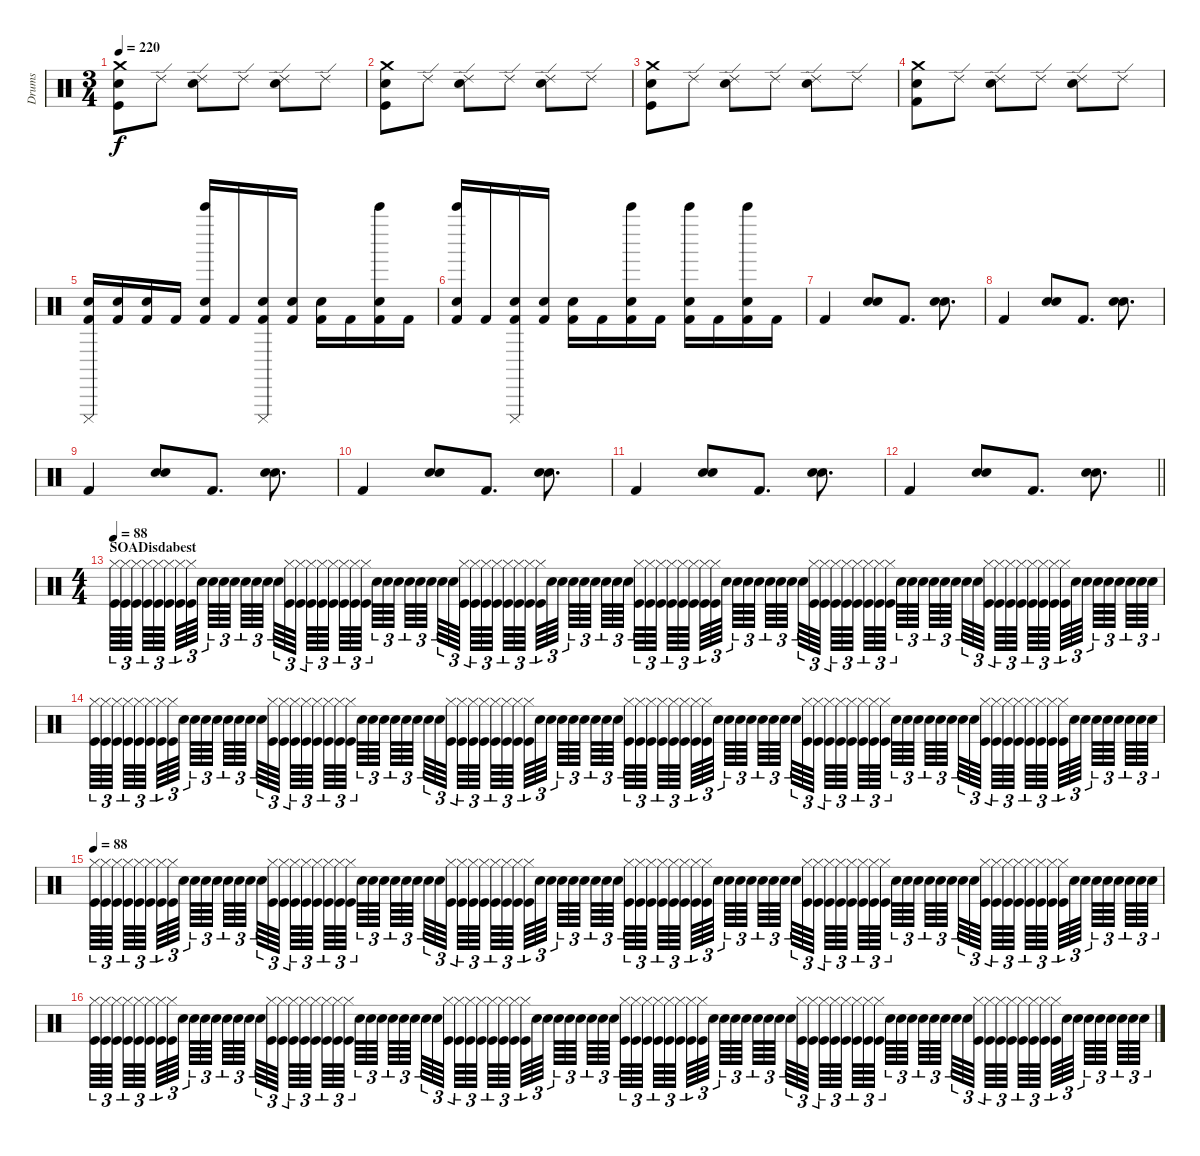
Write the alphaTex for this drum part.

\track ("Drums" "Drums") {instrument percussion}
\staff {score}
\articulation defaults
\ts (3 4)
\tempo 220
\clef neutral
\ks c
("Crash medium (hit)" "Electric Snare (hit)" "Kick (hit)").8{dy f} "Ride (edge) 2".8 ("Ride (edge) 2" "Electric Snare (hit)").8 "Ride (edge) 2".8 ("Ride (edge) 2" "Electric Snare (hit)").8 "Ride (edge) 2".8 |
("Crash medium (hit)" "Electric Snare (hit)" "Kick (hit)").8 "Ride (edge) 2".8 ("Ride (edge) 2" "Electric Snare (hit)").8 "Ride (edge) 2".8 ("Ride (edge) 2" "Electric Snare (hit)").8 "Ride (edge) 2".8 |
("Crash medium (hit)" "Electric Snare (hit)" "Kick (hit)").8 "Ride (edge) 2".8 ("Ride (edge) 2" "Electric Snare (hit)").8 "Ride (edge) 2".8 ("Ride (edge) 2" "Electric Snare (hit)").8 "Ride (edge) 2".8 |
("Crash medium (hit)" "Electric Snare (hit)" "Kick (hit) 2").8 "Ride (edge) 2".8 ("Ride (edge) 2" "Electric Snare (hit)").8 "Ride (edge) 2".8 ("Ride (edge) 2" "Electric Snare (hit)").8 "Ride (edge) 2".8 |
("Cuica (mute)" "Electric Snare (hit)" "Kick (hit) 2").16 ("Electric Snare (hit)" "Kick (hit) 2").16 ("Electric Snare (hit)" "Kick (hit) 2").16 "Kick (hit) 2".16 ("Bell Tree (hit)" "Electric Snare (hit)" "Kick (hit) 2").16 "Kick (hit) 2".16 ("Cuica (mute)" "Electric Snare (hit)" "Kick (hit) 2").16 ("Electric Snare (hit)" "Kick (hit) 2").16 ("Electric Snare (hit)" "Kick (hit) 2").16 "Kick (hit) 2".16 ("Bell Tree (hit)" "Electric Snare (hit)" "Kick (hit) 2").16 "Kick (hit) 2".16 |
("Bell Tree (hit)" "Electric Snare (hit)" "Kick (hit) 2").16 "Kick (hit) 2".16 ("Cuica (mute)" "Electric Snare (hit)" "Kick (hit) 2").16 ("Electric Snare (hit)" "Kick (hit) 2").16 ("Electric Snare (hit)" "Kick (hit) 2").16 "Kick (hit) 2".16 ("Bell Tree (hit)" "Electric Snare (hit)" "Kick (hit) 2").16 "Kick (hit) 2".16 ("Bell Tree (hit)" "Electric Snare (hit)" "Kick (hit) 2").16 "Kick (hit) 2".16 ("Bell Tree (hit)" "Electric Snare (hit)" "Kick (hit) 2").16 "Kick (hit) 2".16 |
"Kick (hit) 2".4 ("Hand Clap (hit)" "Electric Snare (hit)").8 "Kick (hit) 2".8{d} ("Hand Clap (hit)" "Electric Snare (hit)").8{d} |
"Kick (hit) 2".4 ("Hand Clap (hit)" "Electric Snare (hit)").8 "Kick (hit) 2".8{d} ("Hand Clap (hit)" "Electric Snare (hit)").8{d} |
"Kick (hit) 2".4 ("Hand Clap (hit)" "Electric Snare (hit)").8 "Kick (hit) 2".8{d} ("Hand Clap (hit)" "Electric Snare (hit)").8{d} |
"Kick (hit) 2".4 ("Hand Clap (hit)" "Electric Snare (hit)").8 "Kick (hit) 2".8{d} ("Hand Clap (hit)" "Electric Snare (hit)").8{d} |
"Kick (hit) 2".4 ("Hand Clap (hit)" "Electric Snare (hit)").8 "Kick (hit) 2".8{d} ("Hand Clap (hit)" "Electric Snare (hit)").8{d} |
\barLineRight lightlight "Kick (hit) 2".4
("Hand Clap (hit)" "Electric Snare (hit)").8 "Kick (hit) 2".8{d} ("Hand Clap (hit)" "Electric Snare (hit)").8{d} |
\ts (4 4)
\section ("" "SOADisdabest")
\tempo 88
("Hi-Hat (closed)" "Kick (hit)").64{tu (3 2)} ("Hi-Hat (closed)" "Kick (hit)").64{tu (3 2)} ("Hi-Hat (closed)" "Kick (hit)").64{tu (3 2) beam splitsecondary} ("Hi-Hat (closed)" "Kick (hit)").64{tu (3 2)} ("Hi-Hat (closed)" "Kick (hit)").64{tu (3 2)} ("Hi-Hat (closed)" "Kick (hit)").64{tu (3 2) beam splitsecondary} ("Hi-Hat (closed)" "Kick (hit)").64{tu (3 2)} ("Hi-Hat (closed)" "Kick (hit)").64{tu (3 2)} "Snare (hit) 2".64{tu (3 2) beam splitsecondary} "Snare (hit) 2".64{tu (3 2)} "Snare (hit) 2".64{tu (3 2)} "Snare (hit) 2".64{tu (3 2) beam splitsecondary} "Electric Snare (hit)".64{tu (3 2)} "Electric Snare (hit)".64{tu (3 2)} "Electric Snare (hit)".64{tu (3 2) beam splitsecondary} "Electric Snare (hit)".64{tu (3 2)} ("Hi-Hat (closed)" "Kick (hit)").64{tu (3 2)} ("Hi-Hat (closed)" "Kick (hit)").64{tu (3 2) beam splitsecondary} ("Hi-Hat (closed)" "Kick (hit)").64{tu (3 2)} ("Hi-Hat (closed)" "Kick (hit)").64{tu (3 2)} ("Hi-Hat (closed)" "Kick (hit)").64{tu (3 2) beam splitsecondary} ("Hi-Hat (closed)" "Kick (hit)").64{tu (3 2)} ("Hi-Hat (closed)" "Kick (hit)").64{tu (3 2)} ("Hi-Hat (closed)" "Kick (hit)").64{tu (3 2)} "Snare (hit) 2".64{tu (3 2)} "Snare (hit) 2".64{tu (3 2)} "Snare (hit) 2".64{tu (3 2) beam splitsecondary} "Snare (hit) 2".64{tu (3 2)} "Electric Snare (hit)".64{tu (3 2)} "Electric Snare (hit)".64{tu (3 2) beam splitsecondary} "Electric Snare (hit)".64{tu (3 2)} "Electric Snare (hit)".64{tu (3 2)} ("Hi-Hat (closed)" "Kick (hit)").64{tu (3 2) beam splitsecondary} ("Hi-Hat (closed)" "Kick (hit)").64{tu (3 2)} ("Hi-Hat (closed)" "Kick (hit)").64{tu (3 2)} ("Hi-Hat (closed)" "Kick (hit)").64{tu (3 2) beam splitsecondary} ("Hi-Hat (closed)" "Kick (hit)").64{tu (3 2)} ("Hi-Hat (closed)" "Kick (hit)").64{tu (3 2)} ("Hi-Hat (closed)" "Kick (hit)").64{tu (3 2) beam splitsecondary} ("Hi-Hat (closed)" "Kick (hit)").64{tu (3 2)} "Snare (hit) 2".64{tu (3 2)} "Snare (hit) 2".64{tu (3 2) beam splitsecondary} "Snare (hit) 2".64{tu (3 2)} "Snare (hit) 2".64{tu (3 2)} "Electric Snare (hit)".64{tu (3 2) beam splitsecondary} "Electric Snare (hit)".64{tu (3 2)} "Electric Snare (hit)".64{tu (3 2)} "Electric Snare (hit)".64{tu (3 2)} ("Hi-Hat (closed)" "Kick (hit)").64{tu (3 2)} ("Hi-Hat (closed)" "Kick (hit)").64{tu (3 2)} ("Hi-Hat (closed)" "Kick (hit)").64{tu (3 2) beam splitsecondary} ("Hi-Hat (closed)" "Kick (hit)").64{tu (3 2)} ("Hi-Hat (closed)" "Kick (hit)").64{tu (3 2)} ("Hi-Hat (closed)" "Kick (hit)").64{tu (3 2) beam splitsecondary} ("Hi-Hat (closed)" "Kick (hit)").64{tu (3 2)} ("Hi-Hat (closed)" "Kick (hit)").64{tu (3 2)} "Snare (hit) 2".64{tu (3 2) beam splitsecondary} "Snare (hit) 2".64{tu (3 2)} "Snare (hit) 2".64{tu (3 2)} "Snare (hit) 2".64{tu (3 2) beam splitsecondary} "Electric Snare (hit)".64{tu (3 2)} "Electric Snare (hit)".64{tu (3 2)} "Electric Snare (hit)".64{tu (3 2) beam splitsecondary} "Electric Snare (hit)".64{tu (3 2)} ("Hi-Hat (closed)" "Kick (hit)").64{tu (3 2)} ("Hi-Hat (closed)" "Kick (hit)").64{tu (3 2) beam splitsecondary} ("Hi-Hat (closed)" "Kick (hit)").64{tu (3 2)} ("Hi-Hat (closed)" "Kick (hit)").64{tu (3 2)} ("Hi-Hat (closed)" "Kick (hit)").64{tu (3 2) beam splitsecondary} ("Hi-Hat (closed)" "Kick (hit)").64{tu (3 2)} ("Hi-Hat (closed)" "Kick (hit)").64{tu (3 2)} ("Hi-Hat (closed)" "Kick (hit)").64{tu (3 2)} "Snare (hit) 2".64{tu (3 2)} "Snare (hit) 2".64{tu (3 2)} "Snare (hit) 2".64{tu (3 2) beam splitsecondary} "Snare (hit) 2".64{tu (3 2)} "Electric Snare (hit)".64{tu (3 2)} "Electric Snare (hit)".64{tu (3 2) beam splitsecondary} "Electric Snare (hit)".64{tu (3 2)} "Electric Snare (hit)".64{tu (3 2)} ("Hi-Hat (closed)" "Kick (hit)").64{tu (3 2) beam splitsecondary} ("Hi-Hat (closed)" "Kick (hit)").64{tu (3 2)} ("Hi-Hat (closed)" "Kick (hit)").64{tu (3 2)} ("Hi-Hat (closed)" "Kick (hit)").64{tu (3 2) beam splitsecondary} ("Hi-Hat (closed)" "Kick (hit)").64{tu (3 2)} ("Hi-Hat (closed)" "Kick (hit)").64{tu (3 2)} ("Hi-Hat (closed)" "Kick (hit)").64{tu (3 2) beam splitsecondary} ("Hi-Hat (closed)" "Kick (hit)").64{tu (3 2)} "Snare (hit) 2".64{tu (3 2)} "Snare (hit) 2".64{tu (3 2) beam splitsecondary} "Snare (hit) 2".64{tu (3 2)} "Snare (hit) 2".64{tu (3 2)} "Electric Snare (hit)".64{tu (3 2) beam splitsecondary} "Electric Snare (hit)".64{tu (3 2)} "Electric Snare (hit)".64{tu (3 2)} "Electric Snare (hit)".64{tu (3 2)} |
("Hi-Hat (closed)" "Kick (hit)").64{tu (3 2)} ("Hi-Hat (closed)" "Kick (hit)").64{tu (3 2)} ("Hi-Hat (closed)" "Kick (hit)").64{tu (3 2) beam splitsecondary} ("Hi-Hat (closed)" "Kick (hit)").64{tu (3 2)} ("Hi-Hat (closed)" "Kick (hit)").64{tu (3 2)} ("Hi-Hat (closed)" "Kick (hit)").64{tu (3 2) beam splitsecondary} ("Hi-Hat (closed)" "Kick (hit)").64{tu (3 2)} ("Hi-Hat (closed)" "Kick (hit)").64{tu (3 2)} "Snare (hit) 2".64{tu (3 2) beam splitsecondary} "Snare (hit) 2".64{tu (3 2)} "Snare (hit) 2".64{tu (3 2)} "Snare (hit) 2".64{tu (3 2) beam splitsecondary} "Electric Snare (hit)".64{tu (3 2)} "Electric Snare (hit)".64{tu (3 2)} "Electric Snare (hit)".64{tu (3 2) beam splitsecondary} "Electric Snare (hit)".64{tu (3 2)} ("Hi-Hat (closed)" "Kick (hit)").64{tu (3 2)} ("Hi-Hat (closed)" "Kick (hit)").64{tu (3 2) beam splitsecondary} ("Hi-Hat (closed)" "Kick (hit)").64{tu (3 2)} ("Hi-Hat (closed)" "Kick (hit)").64{tu (3 2)} ("Hi-Hat (closed)" "Kick (hit)").64{tu (3 2) beam splitsecondary} ("Hi-Hat (closed)" "Kick (hit)").64{tu (3 2)} ("Hi-Hat (closed)" "Kick (hit)").64{tu (3 2)} ("Hi-Hat (closed)" "Kick (hit)").64{tu (3 2)} "Snare (hit) 2".64{tu (3 2)} "Snare (hit) 2".64{tu (3 2)} "Snare (hit) 2".64{tu (3 2) beam splitsecondary} "Snare (hit) 2".64{tu (3 2)} "Electric Snare (hit)".64{tu (3 2)} "Electric Snare (hit)".64{tu (3 2) beam splitsecondary} "Electric Snare (hit)".64{tu (3 2)} "Electric Snare (hit)".64{tu (3 2)} ("Hi-Hat (closed)" "Kick (hit)").64{tu (3 2) beam splitsecondary} ("Hi-Hat (closed)" "Kick (hit)").64{tu (3 2)} ("Hi-Hat (closed)" "Kick (hit)").64{tu (3 2)} ("Hi-Hat (closed)" "Kick (hit)").64{tu (3 2) beam splitsecondary} ("Hi-Hat (closed)" "Kick (hit)").64{tu (3 2)} ("Hi-Hat (closed)" "Kick (hit)").64{tu (3 2)} ("Hi-Hat (closed)" "Kick (hit)").64{tu (3 2) beam splitsecondary} ("Hi-Hat (closed)" "Kick (hit)").64{tu (3 2)} "Snare (hit) 2".64{tu (3 2)} "Snare (hit) 2".64{tu (3 2) beam splitsecondary} "Snare (hit) 2".64{tu (3 2)} "Snare (hit) 2".64{tu (3 2)} "Electric Snare (hit)".64{tu (3 2) beam splitsecondary} "Electric Snare (hit)".64{tu (3 2)} "Electric Snare (hit)".64{tu (3 2)} "Electric Snare (hit)".64{tu (3 2)} ("Hi-Hat (closed)" "Kick (hit)").64{tu (3 2)} ("Hi-Hat (closed)" "Kick (hit)").64{tu (3 2)} ("Hi-Hat (closed)" "Kick (hit)").64{tu (3 2) beam splitsecondary} ("Hi-Hat (closed)" "Kick (hit)").64{tu (3 2)} ("Hi-Hat (closed)" "Kick (hit)").64{tu (3 2)} ("Hi-Hat (closed)" "Kick (hit)").64{tu (3 2) beam splitsecondary} ("Hi-Hat (closed)" "Kick (hit)").64{tu (3 2)} ("Hi-Hat (closed)" "Kick (hit)").64{tu (3 2)} "Snare (hit) 2".64{tu (3 2) beam splitsecondary} "Snare (hit) 2".64{tu (3 2)} "Snare (hit) 2".64{tu (3 2)} "Snare (hit) 2".64{tu (3 2) beam splitsecondary} "Electric Snare (hit)".64{tu (3 2)} "Electric Snare (hit)".64{tu (3 2)} "Electric Snare (hit)".64{tu (3 2) beam splitsecondary} "Electric Snare (hit)".64{tu (3 2)} ("Hi-Hat (closed)" "Kick (hit)").64{tu (3 2)} ("Hi-Hat (closed)" "Kick (hit)").64{tu (3 2) beam splitsecondary} ("Hi-Hat (closed)" "Kick (hit)").64{tu (3 2)} ("Hi-Hat (closed)" "Kick (hit)").64{tu (3 2)} ("Hi-Hat (closed)" "Kick (hit)").64{tu (3 2) beam splitsecondary} ("Hi-Hat (closed)" "Kick (hit)").64{tu (3 2)} ("Hi-Hat (closed)" "Kick (hit)").64{tu (3 2)} ("Hi-Hat (closed)" "Kick (hit)").64{tu (3 2)} "Snare (hit) 2".64{tu (3 2)} "Snare (hit) 2".64{tu (3 2)} "Snare (hit) 2".64{tu (3 2) beam splitsecondary} "Snare (hit) 2".64{tu (3 2)} "Electric Snare (hit)".64{tu (3 2)} "Electric Snare (hit)".64{tu (3 2) beam splitsecondary} "Electric Snare (hit)".64{tu (3 2)} "Electric Snare (hit)".64{tu (3 2)} ("Hi-Hat (closed)" "Kick (hit)").64{tu (3 2) beam splitsecondary} ("Hi-Hat (closed)" "Kick (hit)").64{tu (3 2)} ("Hi-Hat (closed)" "Kick (hit)").64{tu (3 2)} ("Hi-Hat (closed)" "Kick (hit)").64{tu (3 2) beam splitsecondary} ("Hi-Hat (closed)" "Kick (hit)").64{tu (3 2)} ("Hi-Hat (closed)" "Kick (hit)").64{tu (3 2)} ("Hi-Hat (closed)" "Kick (hit)").64{tu (3 2) beam splitsecondary} ("Hi-Hat (closed)" "Kick (hit)").64{tu (3 2)} "Snare (hit) 2".64{tu (3 2)} "Snare (hit) 2".64{tu (3 2) beam splitsecondary} "Snare (hit) 2".64{tu (3 2)} "Snare (hit) 2".64{tu (3 2)} "Electric Snare (hit)".64{tu (3 2) beam splitsecondary} "Electric Snare (hit)".64{tu (3 2)} "Electric Snare (hit)".64{tu (3 2)} "Electric Snare (hit)".64{tu (3 2)} |
\tempo 88
("Hi-Hat (closed)" "Kick (hit)").64{tu (3 2)} ("Hi-Hat (closed)" "Kick (hit)").64{tu (3 2)} ("Hi-Hat (closed)" "Kick (hit)").64{tu (3 2) beam splitsecondary} ("Hi-Hat (closed)" "Kick (hit)").64{tu (3 2)} ("Hi-Hat (closed)" "Kick (hit)").64{tu (3 2)} ("Hi-Hat (closed)" "Kick (hit)").64{tu (3 2) beam splitsecondary} ("Hi-Hat (closed)" "Kick (hit)").64{tu (3 2)} ("Hi-Hat (closed)" "Kick (hit)").64{tu (3 2)} "Snare (hit) 2".64{tu (3 2) beam splitsecondary} "Snare (hit) 2".64{tu (3 2)} "Snare (hit) 2".64{tu (3 2)} "Snare (hit) 2".64{tu (3 2) beam splitsecondary} "Electric Snare (hit)".64{tu (3 2)} "Electric Snare (hit)".64{tu (3 2)} "Electric Snare (hit)".64{tu (3 2) beam splitsecondary} "Electric Snare (hit)".64{tu (3 2)} ("Hi-Hat (closed)" "Kick (hit)").64{tu (3 2)} ("Hi-Hat (closed)" "Kick (hit)").64{tu (3 2) beam splitsecondary} ("Hi-Hat (closed)" "Kick (hit)").64{tu (3 2)} ("Hi-Hat (closed)" "Kick (hit)").64{tu (3 2)} ("Hi-Hat (closed)" "Kick (hit)").64{tu (3 2) beam splitsecondary} ("Hi-Hat (closed)" "Kick (hit)").64{tu (3 2)} ("Hi-Hat (closed)" "Kick (hit)").64{tu (3 2)} ("Hi-Hat (closed)" "Kick (hit)").64{tu (3 2)} "Snare (hit) 2".64{tu (3 2)} "Snare (hit) 2".64{tu (3 2)} "Snare (hit) 2".64{tu (3 2) beam splitsecondary} "Snare (hit) 2".64{tu (3 2)} "Electric Snare (hit)".64{tu (3 2)} "Electric Snare (hit)".64{tu (3 2) beam splitsecondary} "Electric Snare (hit)".64{tu (3 2)} "Electric Snare (hit)".64{tu (3 2)} ("Hi-Hat (closed)" "Kick (hit)").64{tu (3 2) beam splitsecondary} ("Hi-Hat (closed)" "Kick (hit)").64{tu (3 2)} ("Hi-Hat (closed)" "Kick (hit)").64{tu (3 2)} ("Hi-Hat (closed)" "Kick (hit)").64{tu (3 2) beam splitsecondary} ("Hi-Hat (closed)" "Kick (hit)").64{tu (3 2)} ("Hi-Hat (closed)" "Kick (hit)").64{tu (3 2)} ("Hi-Hat (closed)" "Kick (hit)").64{tu (3 2) beam splitsecondary} ("Hi-Hat (closed)" "Kick (hit)").64{tu (3 2)} "Snare (hit) 2".64{tu (3 2)} "Snare (hit) 2".64{tu (3 2) beam splitsecondary} "Snare (hit) 2".64{tu (3 2)} "Snare (hit) 2".64{tu (3 2)} "Electric Snare (hit)".64{tu (3 2) beam splitsecondary} "Electric Snare (hit)".64{tu (3 2)} "Electric Snare (hit)".64{tu (3 2)} "Electric Snare (hit)".64{tu (3 2)} ("Hi-Hat (closed)" "Kick (hit)").64{tu (3 2)} ("Hi-Hat (closed)" "Kick (hit)").64{tu (3 2)} ("Hi-Hat (closed)" "Kick (hit)").64{tu (3 2) beam splitsecondary} ("Hi-Hat (closed)" "Kick (hit)").64{tu (3 2)} ("Hi-Hat (closed)" "Kick (hit)").64{tu (3 2)} ("Hi-Hat (closed)" "Kick (hit)").64{tu (3 2) beam splitsecondary} ("Hi-Hat (closed)" "Kick (hit)").64{tu (3 2)} ("Hi-Hat (closed)" "Kick (hit)").64{tu (3 2)} "Snare (hit) 2".64{tu (3 2) beam splitsecondary} "Snare (hit) 2".64{tu (3 2)} "Snare (hit) 2".64{tu (3 2)} "Snare (hit) 2".64{tu (3 2) beam splitsecondary} "Electric Snare (hit)".64{tu (3 2)} "Electric Snare (hit)".64{tu (3 2)} "Electric Snare (hit)".64{tu (3 2) beam splitsecondary} "Electric Snare (hit)".64{tu (3 2)} ("Hi-Hat (closed)" "Kick (hit)").64{tu (3 2)} ("Hi-Hat (closed)" "Kick (hit)").64{tu (3 2) beam splitsecondary} ("Hi-Hat (closed)" "Kick (hit)").64{tu (3 2)} ("Hi-Hat (closed)" "Kick (hit)").64{tu (3 2)} ("Hi-Hat (closed)" "Kick (hit)").64{tu (3 2) beam splitsecondary} ("Hi-Hat (closed)" "Kick (hit)").64{tu (3 2)} ("Hi-Hat (closed)" "Kick (hit)").64{tu (3 2)} ("Hi-Hat (closed)" "Kick (hit)").64{tu (3 2)} "Snare (hit) 2".64{tu (3 2)} "Snare (hit) 2".64{tu (3 2)} "Snare (hit) 2".64{tu (3 2) beam splitsecondary} "Snare (hit) 2".64{tu (3 2)} "Electric Snare (hit)".64{tu (3 2)} "Electric Snare (hit)".64{tu (3 2) beam splitsecondary} "Electric Snare (hit)".64{tu (3 2)} "Electric Snare (hit)".64{tu (3 2)} ("Hi-Hat (closed)" "Kick (hit)").64{tu (3 2) beam splitsecondary} ("Hi-Hat (closed)" "Kick (hit)").64{tu (3 2)} ("Hi-Hat (closed)" "Kick (hit)").64{tu (3 2)} ("Hi-Hat (closed)" "Kick (hit)").64{tu (3 2) beam splitsecondary} ("Hi-Hat (closed)" "Kick (hit)").64{tu (3 2)} ("Hi-Hat (closed)" "Kick (hit)").64{tu (3 2)} ("Hi-Hat (closed)" "Kick (hit)").64{tu (3 2) beam splitsecondary} ("Hi-Hat (closed)" "Kick (hit)").64{tu (3 2)} "Snare (hit) 2".64{tu (3 2)} "Snare (hit) 2".64{tu (3 2) beam splitsecondary} "Snare (hit) 2".64{tu (3 2)} "Snare (hit) 2".64{tu (3 2)} "Electric Snare (hit)".64{tu (3 2) beam splitsecondary} "Electric Snare (hit)".64{tu (3 2)} "Electric Snare (hit)".64{tu (3 2)} "Electric Snare (hit)".64{tu (3 2)} |
("Hi-Hat (closed)" "Kick (hit)").64{tu (3 2)} ("Hi-Hat (closed)" "Kick (hit)").64{tu (3 2)} ("Hi-Hat (closed)" "Kick (hit)").64{tu (3 2) beam splitsecondary} ("Hi-Hat (closed)" "Kick (hit)").64{tu (3 2)} ("Hi-Hat (closed)" "Kick (hit)").64{tu (3 2)} ("Hi-Hat (closed)" "Kick (hit)").64{tu (3 2) beam splitsecondary} ("Hi-Hat (closed)" "Kick (hit)").64{tu (3 2)} ("Hi-Hat (closed)" "Kick (hit)").64{tu (3 2)} "Snare (hit) 2".64{tu (3 2) beam splitsecondary} "Snare (hit) 2".64{tu (3 2)} "Snare (hit) 2".64{tu (3 2)} "Snare (hit) 2".64{tu (3 2) beam splitsecondary} "Electric Snare (hit)".64{tu (3 2)} "Electric Snare (hit)".64{tu (3 2)} "Electric Snare (hit)".64{tu (3 2) beam splitsecondary} "Electric Snare (hit)".64{tu (3 2)} ("Hi-Hat (closed)" "Kick (hit)").64{tu (3 2)} ("Hi-Hat (closed)" "Kick (hit)").64{tu (3 2) beam splitsecondary} ("Hi-Hat (closed)" "Kick (hit)").64{tu (3 2)} ("Hi-Hat (closed)" "Kick (hit)").64{tu (3 2)} ("Hi-Hat (closed)" "Kick (hit)").64{tu (3 2) beam splitsecondary} ("Hi-Hat (closed)" "Kick (hit)").64{tu (3 2)} ("Hi-Hat (closed)" "Kick (hit)").64{tu (3 2)} ("Hi-Hat (closed)" "Kick (hit)").64{tu (3 2)} "Snare (hit) 2".64{tu (3 2)} "Snare (hit) 2".64{tu (3 2)} "Snare (hit) 2".64{tu (3 2) beam splitsecondary} "Snare (hit) 2".64{tu (3 2)} "Electric Snare (hit)".64{tu (3 2)} "Electric Snare (hit)".64{tu (3 2) beam splitsecondary} "Electric Snare (hit)".64{tu (3 2)} "Electric Snare (hit)".64{tu (3 2)} ("Hi-Hat (closed)" "Kick (hit)").64{tu (3 2) beam splitsecondary} ("Hi-Hat (closed)" "Kick (hit)").64{tu (3 2)} ("Hi-Hat (closed)" "Kick (hit)").64{tu (3 2)} ("Hi-Hat (closed)" "Kick (hit)").64{tu (3 2) beam splitsecondary} ("Hi-Hat (closed)" "Kick (hit)").64{tu (3 2)} ("Hi-Hat (closed)" "Kick (hit)").64{tu (3 2)} ("Hi-Hat (closed)" "Kick (hit)").64{tu (3 2) beam splitsecondary} ("Hi-Hat (closed)" "Kick (hit)").64{tu (3 2)} "Snare (hit) 2".64{tu (3 2)} "Snare (hit) 2".64{tu (3 2) beam splitsecondary} "Snare (hit) 2".64{tu (3 2)} "Snare (hit) 2".64{tu (3 2)} "Electric Snare (hit)".64{tu (3 2) beam splitsecondary} "Electric Snare (hit)".64{tu (3 2)} "Electric Snare (hit)".64{tu (3 2)} "Electric Snare (hit)".64{tu (3 2)} ("Hi-Hat (closed)" "Kick (hit)").64{tu (3 2)} ("Hi-Hat (closed)" "Kick (hit)").64{tu (3 2)} ("Hi-Hat (closed)" "Kick (hit)").64{tu (3 2) beam splitsecondary} ("Hi-Hat (closed)" "Kick (hit)").64{tu (3 2)} ("Hi-Hat (closed)" "Kick (hit)").64{tu (3 2)} ("Hi-Hat (closed)" "Kick (hit)").64{tu (3 2) beam splitsecondary} ("Hi-Hat (closed)" "Kick (hit)").64{tu (3 2)} ("Hi-Hat (closed)" "Kick (hit)").64{tu (3 2)} "Snare (hit) 2".64{tu (3 2) beam splitsecondary} "Snare (hit) 2".64{tu (3 2)} "Snare (hit) 2".64{tu (3 2)} "Snare (hit) 2".64{tu (3 2) beam splitsecondary} "Electric Snare (hit)".64{tu (3 2)} "Electric Snare (hit)".64{tu (3 2)} "Electric Snare (hit)".64{tu (3 2) beam splitsecondary} "Electric Snare (hit)".64{tu (3 2)} ("Hi-Hat (closed)" "Kick (hit)").64{tu (3 2)} ("Hi-Hat (closed)" "Kick (hit)").64{tu (3 2) beam splitsecondary} ("Hi-Hat (closed)" "Kick (hit)").64{tu (3 2)} ("Hi-Hat (closed)" "Kick (hit)").64{tu (3 2)} ("Hi-Hat (closed)" "Kick (hit)").64{tu (3 2) beam splitsecondary} ("Hi-Hat (closed)" "Kick (hit)").64{tu (3 2)} ("Hi-Hat (closed)" "Kick (hit)").64{tu (3 2)} ("Hi-Hat (closed)" "Kick (hit)").64{tu (3 2)} "Snare (hit) 2".64{tu (3 2)} "Snare (hit) 2".64{tu (3 2)} "Snare (hit) 2".64{tu (3 2) beam splitsecondary} "Snare (hit) 2".64{tu (3 2)} "Electric Snare (hit)".64{tu (3 2)} "Electric Snare (hit)".64{tu (3 2) beam splitsecondary} "Electric Snare (hit)".64{tu (3 2)} "Electric Snare (hit)".64{tu (3 2)} ("Hi-Hat (closed)" "Kick (hit)").64{tu (3 2) beam splitsecondary} ("Hi-Hat (closed)" "Kick (hit)").64{tu (3 2)} ("Hi-Hat (closed)" "Kick (hit)").64{tu (3 2)} ("Hi-Hat (closed)" "Kick (hit)").64{tu (3 2) beam splitsecondary} ("Hi-Hat (closed)" "Kick (hit)").64{tu (3 2)} ("Hi-Hat (closed)" "Kick (hit)").64{tu (3 2)} ("Hi-Hat (closed)" "Kick (hit)").64{tu (3 2) beam splitsecondary} ("Hi-Hat (closed)" "Kick (hit)").64{tu (3 2)} "Snare (hit) 2".64{tu (3 2)} "Snare (hit) 2".64{tu (3 2) beam splitsecondary} "Snare (hit) 2".64{tu (3 2)} "Snare (hit) 2".64{tu (3 2)} "Electric Snare (hit)".64{tu (3 2) beam splitsecondary} "Electric Snare (hit)".64{tu (3 2)} "Electric Snare (hit)".64{tu (3 2)} "Electric Snare (hit)".64{tu (3 2)}
